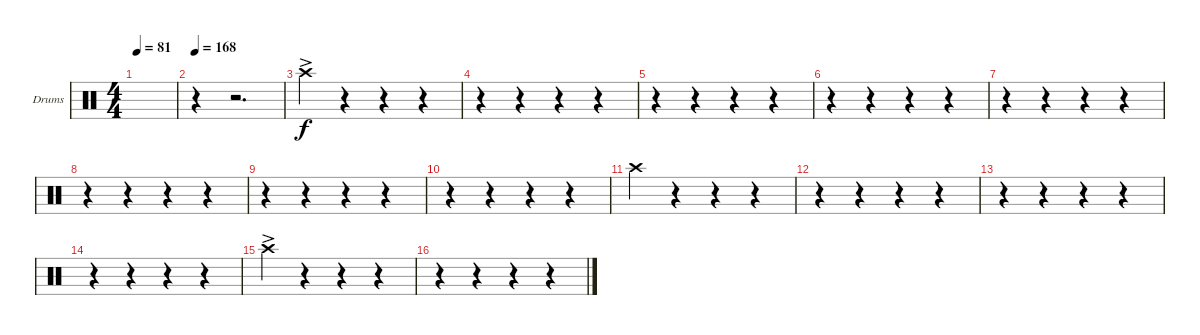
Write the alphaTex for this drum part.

\bracketExtendMode groupsimilarinstruments
\firstSystemTrackNameOrientation horizontal
\otherSystemsTrackNameOrientation horizontal
\track ("Drumkit" "Drums") {instrument percussion}
\staff {score}
\articulation defaults
\ts (4 4)
\tempo 81
\clef neutral
\ks c
|
\tempo 168
r.4 r.2{d} |
"Crash high (hit)"{ac}.4 r.4 r.4 r.4 |
r.4 r.4 r.4 r.4 |
r.4 r.4 r.4 r.4 |
r.4 r.4 r.4 r.4 |
r.4 r.4 r.4 r.4 |
r.4 r.4 r.4 r.4 |
r.4 r.4 r.4 r.4 |
r.4 r.4 r.4 r.4 |
"Crash high (hit)".4 r.4 r.4 r.4 |
r.4 r.4 r.4 r.4 |
r.4 r.4 r.4 r.4 |
r.4 r.4 r.4 r.4 |
"Crash high (hit)"{ac}.4 r.4 r.4 r.4 |
r.4 r.4 r.4 r.4
